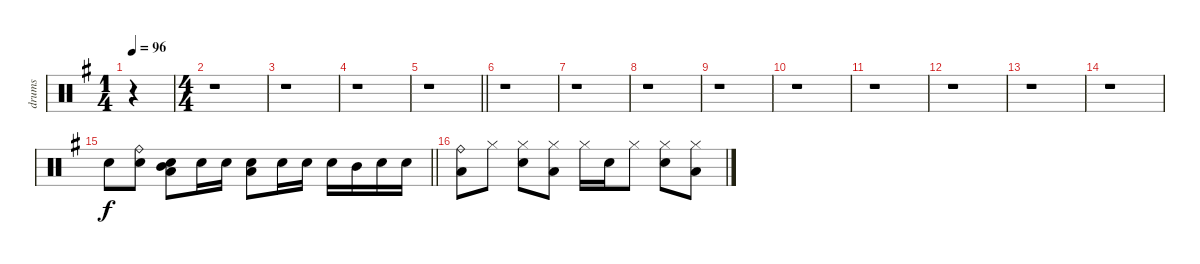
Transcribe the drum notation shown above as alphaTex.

\track ("drums" "drums") {instrument percussion}
\staff {score}
\articulation defaults
\ts (1 4)
\tempo 96
\clef neutral
\ks g
r.4{dy f} |
\ts (4 4)
r.1 |
r.1 |
r.1 |
\barLineRight lightlight
r.1 |
r.1 |
r.1 |
r.1 |
r.1 |
r.1 |
r.1 |
r.1 |
r.1 |
r.1 |
\barLineRight lightlight "Electric Snare (hit)".8
("Ride (bell)" "Electric Snare (hit)").8 ("Mid Tom (hit)" "Electric Snare (hit)" "Low Floor Tom (hit)").8 "Electric Snare (hit)".16 "Snare (hit) 2".16 ("Snare (hit) 2" "Low Floor Tom (hit)").8 "Electric Snare (hit)".16 "Electric Snare (hit)".16 "Electric Snare (hit)".16 "Mid Tom (hit)".16 "Snare (hit) 2".16 "Snare (hit) 2".16 |
("Ride (bell)" "Low Floor Tom (hit)").8 "Hi-Hat (closed)".8 ("Hi-Hat (closed)" "Electric Snare (hit)").8 ("Hi-Hat (closed)" "Low Floor Tom (hit)").8 "Hi-Hat (closed)".16 "Electric Snare (hit)".16 "Hi-Hat (closed)".8 ("Hi-Hat (closed)" "Electric Snare (hit)").8 ("Hi-Hat (closed)" "Low Floor Tom (hit)").8
